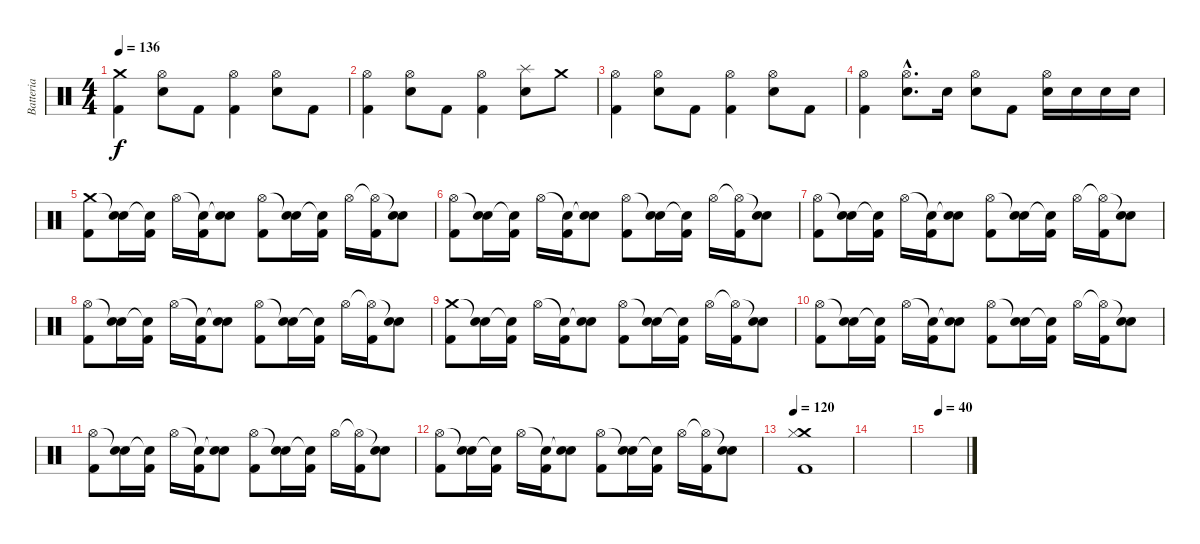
\track ("Batteria" "Batteria") {instrument percussion}
\staff {score}
\articulation defaults
\ts (4 4)
\tempo 136
\clef neutral
\ks c
("Crash medium (hit)" "Kick (hit) 2").4{dy f} ("Hi-Hat (open)" "Electric Snare (hit)").8 "Kick (hit) 2".8 ("Hi-Hat (open)" "Kick (hit) 2").4 ("Hi-Hat (open)" "Electric Snare (hit)").8 "Kick (hit) 2".8 |
("Hi-Hat (open)" "Kick (hit) 2").4 ("Hi-Hat (open)" "Electric Snare (hit)").8 "Kick (hit) 2".8 ("Hi-Hat (open)" "Kick (hit) 2").4 ("Splash (hit)" "Electric Snare (hit)").8 "Crash medium (hit)".8 |
("Hi-Hat (open)" "Kick (hit) 2").4 ("Hi-Hat (open)" "Electric Snare (hit)").8 "Kick (hit) 2".8 ("Hi-Hat (open)" "Kick (hit) 2").4 ("Hi-Hat (open)" "Electric Snare (hit)").8 "Kick (hit) 2".8 |
("Hi-Hat (open)" "Kick (hit) 2").4 ("Hi-Hat (open)"{hac} "Electric Snare (hit)"{hac}).8{d} "Electric Snare (hit)".16 ("Hi-Hat (open)" "Electric Snare (hit)").8 "Kick (hit) 2".8 ("Hi-Hat (open)" "Electric Snare (hit)").16 "Electric Snare (hit)".16 "Electric Snare (hit)".16 "Electric Snare (hit)".16 |
("Crash medium (hit)" "Kick (hit) 2").8 ("Snare (hit)"{t} "Electric Snare (hit)").16 ("Snare (hit)"{t} "Kick (hit) 2").16 "Hi-Hat (open)".16 ("Snare (hit)"{t} "Kick (hit) 2").16 ("Snare (hit)"{t} "Electric Snare (hit)").8 ("Hi-Hat (open)" "Kick (hit) 2").8 ("Snare (hit)"{t} "Electric Snare (hit)").16 ("Snare (hit)"{t} "Kick (hit) 2").16 "Hi-Hat (open)".16 ("Hi-Hat (open)"{t} "Kick (hit) 2").16 ("Snare (hit)"{t} "Electric Snare (hit)").8 |
("Hi-Hat (open)" "Kick (hit) 2").8 ("Snare (hit)"{t} "Electric Snare (hit)").16 ("Snare (hit)"{t} "Kick (hit) 2").16 "Hi-Hat (open)".16 ("Snare (hit)"{t} "Kick (hit) 2").16 ("Snare (hit)"{t} "Electric Snare (hit)").8 ("Hi-Hat (open)" "Kick (hit) 2").8 ("Snare (hit)"{t} "Electric Snare (hit)").16 ("Snare (hit)"{t} "Kick (hit) 2").16 "Hi-Hat (open)".16 ("Hi-Hat (open)"{t} "Kick (hit) 2").16 ("Snare (hit)"{t} "Electric Snare (hit)").8 |
("Hi-Hat (open)" "Kick (hit) 2").8 ("Snare (hit)"{t} "Electric Snare (hit)").16 ("Snare (hit)"{t} "Kick (hit) 2").16 "Hi-Hat (open)".16 ("Snare (hit)"{t} "Kick (hit) 2").16 ("Snare (hit)"{t} "Electric Snare (hit)").8 ("Hi-Hat (open)" "Kick (hit) 2").8 ("Snare (hit)"{t} "Electric Snare (hit)").16 ("Snare (hit)"{t} "Kick (hit) 2").16 "Hi-Hat (open)".16 ("Hi-Hat (open)"{t} "Kick (hit) 2").16 ("Snare (hit)"{t} "Electric Snare (hit)").8 |
("Hi-Hat (open)" "Kick (hit) 2").8 ("Snare (hit)"{t} "Electric Snare (hit)").16 ("Snare (hit)"{t} "Kick (hit) 2").16 "Hi-Hat (open)".16 ("Snare (hit)"{t} "Kick (hit) 2").16 ("Snare (hit)"{t} "Electric Snare (hit)").8 ("Hi-Hat (open)" "Kick (hit) 2").8 ("Snare (hit)"{t} "Electric Snare (hit)").16 ("Snare (hit)"{t} "Kick (hit) 2").16 "Hi-Hat (open)".16 ("Hi-Hat (open)"{t} "Kick (hit) 2").16 ("Snare (hit)"{t} "Electric Snare (hit)").8 |
("Crash medium (hit)" "Kick (hit) 2").8 ("Snare (hit)"{t} "Electric Snare (hit)").16 ("Snare (hit)"{t} "Kick (hit) 2").16 "Hi-Hat (open)".16 ("Snare (hit)"{t} "Kick (hit) 2").16 ("Snare (hit)"{t} "Electric Snare (hit)").8 ("Hi-Hat (open)" "Kick (hit) 2").8 ("Snare (hit)"{t} "Electric Snare (hit)").16 ("Snare (hit)"{t} "Kick (hit) 2").16 "Hi-Hat (open)".16 ("Hi-Hat (open)"{t} "Kick (hit) 2").16 ("Snare (hit)"{t} "Electric Snare (hit)").8 |
("Hi-Hat (open)" "Kick (hit) 2").8 ("Snare (hit)"{t} "Electric Snare (hit)").16 ("Snare (hit)"{t} "Kick (hit) 2").16 "Hi-Hat (open)".16 ("Snare (hit)"{t} "Kick (hit) 2").16 ("Snare (hit)"{t} "Electric Snare (hit)").8 ("Hi-Hat (open)" "Kick (hit) 2").8 ("Snare (hit)"{t} "Electric Snare (hit)").16 ("Snare (hit)"{t} "Kick (hit) 2").16 "Hi-Hat (open)".16 ("Hi-Hat (open)"{t} "Kick (hit) 2").16 ("Snare (hit)"{t} "Electric Snare (hit)").8 |
("Hi-Hat (open)" "Kick (hit) 2").8 ("Snare (hit)"{t} "Electric Snare (hit)").16 ("Snare (hit)"{t} "Kick (hit) 2").16 "Hi-Hat (open)".16 ("Snare (hit)"{t} "Kick (hit) 2").16 ("Snare (hit)"{t} "Electric Snare (hit)").8 ("Hi-Hat (open)" "Kick (hit) 2").8 ("Snare (hit)"{t} "Electric Snare (hit)").16 ("Snare (hit)"{t} "Kick (hit) 2").16 "Hi-Hat (open)".16 ("Hi-Hat (open)"{t} "Kick (hit) 2").16 ("Snare (hit)"{t} "Electric Snare (hit)").8 |
("Hi-Hat (open)" "Kick (hit) 2").8 ("Snare (hit)"{t} "Electric Snare (hit)").16 ("Snare (hit)"{t} "Kick (hit) 2").16 "Hi-Hat (open)".16 ("Snare (hit)"{t} "Kick (hit) 2").16 ("Snare (hit)"{t} "Electric Snare (hit)").8 ("Hi-Hat (open)" "Kick (hit) 2").8 ("Snare (hit)"{t} "Electric Snare (hit)").16 ("Snare (hit)"{t} "Kick (hit) 2").16 "Hi-Hat (open)".16 ("Hi-Hat (open)"{t} "Kick (hit) 2").16 ("Snare (hit)"{t} "Electric Snare (hit)").8 |
\tempo 120
("Crash medium (hit)" "Hi-Hat (closed)" "Kick (hit) 2").1 |
|
\tempo (40 0.25)
